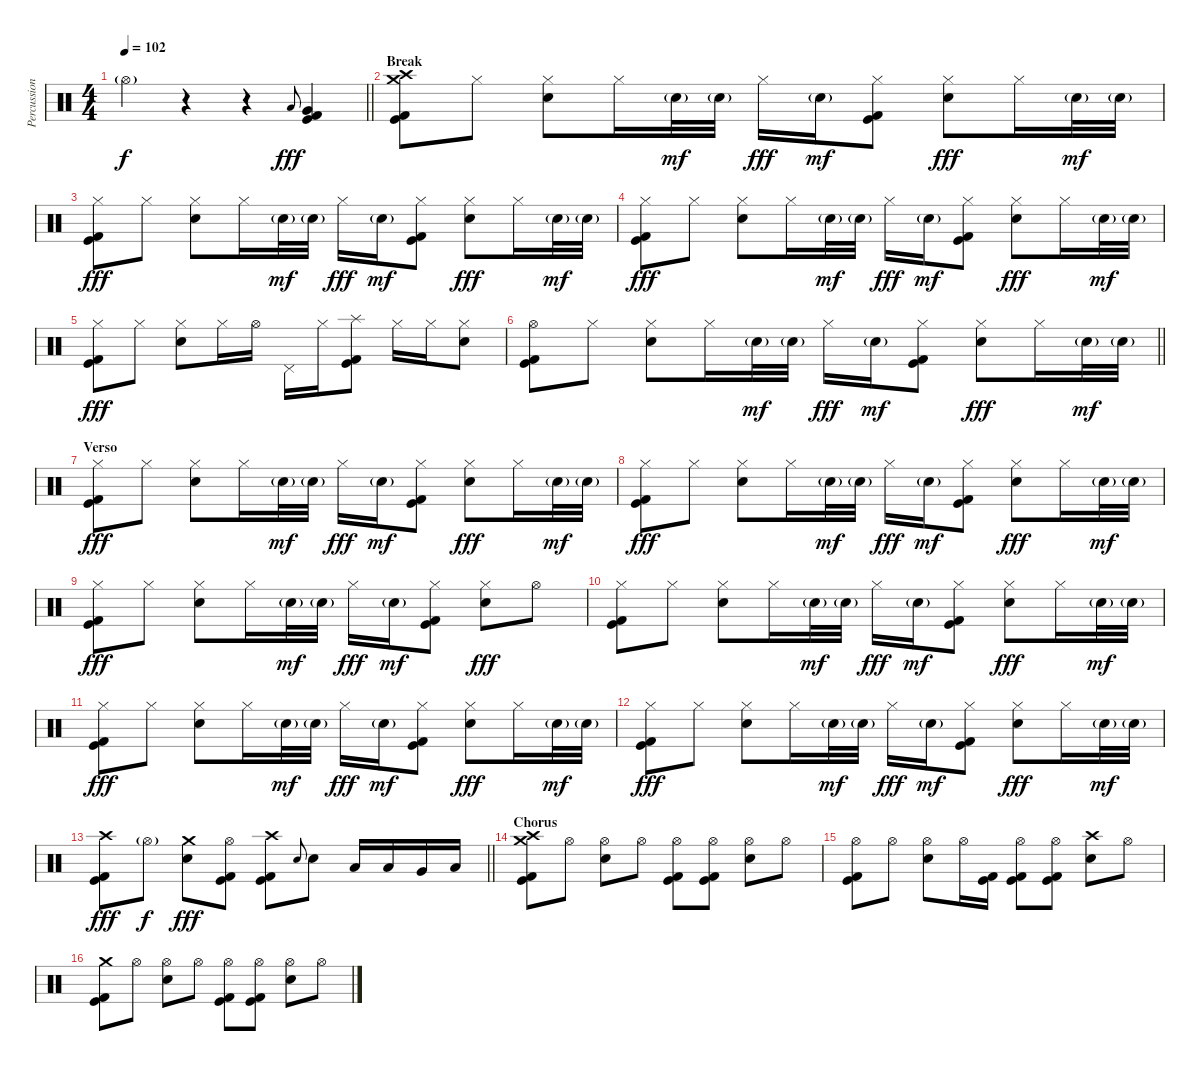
\track ("Percussion" "Percussion") {instrument percussion}
\staff {score}
\articulation defaults
\ts (4 4)
\tempo 102
\clef neutral
\barLineRight lightlight
\ks c "Hi-Hat (open)"{g}.4{dy f}
r.4 r.4 "Low Floor Tom (hit)".8{gr onbeat dy fff} ("Very Low Tom (hit)" "Kick (hit)" "Kick (hit) 2").4 |
\section ("" "Break")
("Crash medium (hit)" "Crash high (hit)" "Kick (hit)" "Kick (hit) 2").8 "Hi-Hat (closed)".8 ("Hi-Hat (closed)" "Electric Snare (hit)").8 "Hi-Hat (closed)".16 "Electric Snare (hit)"{g}.32{dy mf} "Electric Snare (hit)"{g}.32 "Hi-Hat (closed)".16{dy fff} "Electric Snare (hit)"{g}.16{dy mf} ("Hi-Hat (closed)" "Kick (hit)" "Kick (hit) 2").8 ("Hi-Hat (closed)" "Electric Snare (hit)").8{dy fff} "Hi-Hat (closed)".16 "Electric Snare (hit)"{g}.32{dy mf} "Electric Snare (hit)"{g}.32 |
("Hi-Hat (closed)" "Kick (hit)" "Kick (hit) 2").8{dy fff} "Hi-Hat (closed)".8 ("Hi-Hat (closed)" "Electric Snare (hit)").8 "Hi-Hat (closed)".16 "Electric Snare (hit)"{g}.32{dy mf} "Electric Snare (hit)"{g}.32 "Hi-Hat (closed)".16{dy fff} "Electric Snare (hit)"{g}.16{dy mf} ("Hi-Hat (closed)" "Kick (hit)" "Kick (hit) 2").8 ("Hi-Hat (closed)" "Electric Snare (hit)").8{dy fff} "Hi-Hat (closed)".16 "Electric Snare (hit)"{g}.32{dy mf} "Electric Snare (hit)"{g}.32 |
("Hi-Hat (closed)" "Kick (hit)" "Kick (hit) 2").8{dy fff} "Hi-Hat (closed)".8 ("Hi-Hat (closed)" "Electric Snare (hit)").8 "Hi-Hat (closed)".16 "Electric Snare (hit)"{g}.32{dy mf} "Electric Snare (hit)"{g}.32 "Hi-Hat (closed)".16{dy fff} "Electric Snare (hit)"{g}.16{dy mf} ("Hi-Hat (closed)" "Kick (hit)" "Kick (hit) 2").8 ("Hi-Hat (closed)" "Electric Snare (hit)").8{dy fff} "Hi-Hat (closed)".16 "Electric Snare (hit)"{g}.32{dy mf} "Electric Snare (hit)"{g}.32 |
("Hi-Hat (closed)" "Kick (hit)" "Kick (hit) 2").8{dy fff} "Hi-Hat (closed)".8 ("Hi-Hat (closed)" "Electric Snare (hit)").8 "Hi-Hat (closed)".16 "Hi-Hat (open)".16 "Pedal Hi-Hat (hit)".16 "Hi-Hat (closed)".16 ("Splash (hit)" "Kick (hit)" "Kick (hit) 2").8 "Hi-Hat (closed)".16 "Hi-Hat (closed)".16 ("Hi-Hat (closed)" "Electric Snare (hit)").8 |
\barLineRight lightlight
("Hi-Hat (open)" "Kick (hit)" "Kick (hit) 2").8 "Hi-Hat (closed)".8 ("Hi-Hat (closed)" "Electric Snare (hit)").8 "Hi-Hat (closed)".16 "Electric Snare (hit)"{g}.32{dy mf} "Electric Snare (hit)"{g}.32 "Hi-Hat (closed)".16{dy fff} "Electric Snare (hit)"{g}.16{dy mf} ("Hi-Hat (closed)" "Kick (hit)" "Kick (hit) 2").8 ("Hi-Hat (closed)" "Electric Snare (hit)").8{dy fff} "Hi-Hat (closed)".16 "Electric Snare (hit)"{g}.32{dy mf} "Electric Snare (hit)"{g}.32 |
\section ("" "Verso")
("Hi-Hat (closed)" "Kick (hit)" "Kick (hit) 2").8{dy fff} "Hi-Hat (closed)".8 ("Hi-Hat (closed)" "Electric Snare (hit)").8 "Hi-Hat (closed)".16 "Electric Snare (hit)"{g}.32{dy mf} "Electric Snare (hit)"{g}.32 "Hi-Hat (closed)".16{dy fff} "Electric Snare (hit)"{g}.16{dy mf} ("Hi-Hat (closed)" "Kick (hit)" "Kick (hit) 2").8 ("Hi-Hat (closed)" "Electric Snare (hit)").8{dy fff} "Hi-Hat (closed)".16 "Electric Snare (hit)"{g}.32{dy mf} "Electric Snare (hit)"{g}.32 |
("Hi-Hat (closed)" "Kick (hit)" "Kick (hit) 2").8{dy fff} "Hi-Hat (closed)".8 ("Hi-Hat (closed)" "Electric Snare (hit)").8 "Hi-Hat (closed)".16 "Electric Snare (hit)"{g}.32{dy mf} "Electric Snare (hit)"{g}.32 "Hi-Hat (closed)".16{dy fff} "Electric Snare (hit)"{g}.16{dy mf} ("Hi-Hat (closed)" "Kick (hit)" "Kick (hit) 2").8 ("Hi-Hat (closed)" "Electric Snare (hit)").8{dy fff} "Hi-Hat (closed)".16 "Electric Snare (hit)"{g}.32{dy mf} "Electric Snare (hit)"{g}.32 |
("Hi-Hat (closed)" "Kick (hit)" "Kick (hit) 2").8{dy fff} "Hi-Hat (closed)".8 ("Hi-Hat (closed)" "Electric Snare (hit)").8 "Hi-Hat (closed)".16 "Electric Snare (hit)"{g}.32{dy mf} "Electric Snare (hit)"{g}.32 "Hi-Hat (closed)".16{dy fff} "Electric Snare (hit)"{g}.16{dy mf} ("Hi-Hat (closed)" "Kick (hit)" "Kick (hit) 2").8 ("Hi-Hat (closed)" "Electric Snare (hit)").8{dy fff} "Hi-Hat (open)".8 |
("Hi-Hat (closed)" "Kick (hit)" "Kick (hit) 2").8 "Hi-Hat (closed)".8 ("Hi-Hat (closed)" "Electric Snare (hit)").8 "Hi-Hat (closed)".16 "Electric Snare (hit)"{g}.32{dy mf} "Electric Snare (hit)"{g}.32 "Hi-Hat (closed)".16{dy fff} "Electric Snare (hit)"{g}.16{dy mf} ("Hi-Hat (closed)" "Kick (hit)" "Kick (hit) 2").8 ("Hi-Hat (closed)" "Electric Snare (hit)").8{dy fff} "Hi-Hat (closed)".16 "Electric Snare (hit)"{g}.32{dy mf} "Electric Snare (hit)"{g}.32 |
("Hi-Hat (closed)" "Kick (hit)" "Kick (hit) 2").8{dy fff} "Hi-Hat (closed)".8 ("Hi-Hat (closed)" "Electric Snare (hit)").8 "Hi-Hat (closed)".16 "Electric Snare (hit)"{g}.32{dy mf} "Electric Snare (hit)"{g}.32 "Hi-Hat (closed)".16{dy fff} "Electric Snare (hit)"{g}.16{dy mf} ("Hi-Hat (closed)" "Kick (hit)" "Kick (hit) 2").8 ("Hi-Hat (closed)" "Electric Snare (hit)").8{dy fff} "Hi-Hat (closed)".16 "Electric Snare (hit)"{g}.32{dy mf} "Electric Snare (hit)"{g}.32 |
("Hi-Hat (closed)" "Kick (hit)" "Kick (hit) 2").8{dy fff} "Hi-Hat (closed)".8 ("Hi-Hat (closed)" "Electric Snare (hit)").8 "Hi-Hat (closed)".16 "Electric Snare (hit)"{g}.32{dy mf} "Electric Snare (hit)"{g}.32 "Hi-Hat (closed)".16{dy fff} "Electric Snare (hit)"{g}.16{dy mf} ("Hi-Hat (closed)" "Kick (hit)" "Kick (hit) 2").8 ("Hi-Hat (closed)" "Electric Snare (hit)").8{dy fff} "Hi-Hat (closed)".16 "Electric Snare (hit)"{g}.32{dy mf} "Electric Snare (hit)"{g}.32 |
\barLineRight lightlight
("Crash high (hit)" "Kick (hit)" "Kick (hit) 2").8{dy fff} "Hi-Hat (open)"{g}.8{dy f} ("Crash medium (hit)" "Electric Snare (hit)").8{dy fff} ("Hi-Hat (open)" "Kick (hit)" "Kick (hit) 2").8 ("Crash high (hit)" "Kick (hit)" "Kick (hit) 2").8 "Electric Snare (hit)".8{gr onbeat} "Electric Snare (hit)".8 "Low Tom (hit)".16 "Low Tom (hit)".16 "Very Low Tom (hit)".16 "Low Floor Tom (hit)".16 |
\section ("" "Chorus")
("Crash medium (hit)" "Crash high (hit)" "Kick (hit)" "Kick (hit) 2").8 "Hi-Hat (open)".8 ("Hi-Hat (open)" "Electric Snare (hit)").8 "Hi-Hat (open)".8 ("Hi-Hat (open)" "Kick (hit)" "Kick (hit) 2").8 ("Hi-Hat (open)" "Kick (hit)" "Kick (hit) 2").8 ("Hi-Hat (open)" "Electric Snare (hit)").8 "Hi-Hat (open)".8 |
("Hi-Hat (open)" "Kick (hit)" "Kick (hit) 2").8 "Hi-Hat (open)".8 ("Hi-Hat (open)" "Electric Snare (hit)").8 "Hi-Hat (open)".16 ("Kick (hit)" "Kick (hit) 2").16 ("Hi-Hat (open)" "Kick (hit)" "Kick (hit) 2").8 ("Hi-Hat (open)" "Kick (hit)" "Kick (hit) 2").8 ("Crash high (hit)" "Electric Snare (hit)").8 "Hi-Hat (open)".8 |
("Crash medium (hit)" "Kick (hit)" "Kick (hit) 2").8 "Hi-Hat (open)".8 ("Hi-Hat (open)" "Electric Snare (hit)").8 "Hi-Hat (open)".8 ("Hi-Hat (open)" "Kick (hit)" "Kick (hit) 2").8 ("Hi-Hat (open)" "Kick (hit)" "Kick (hit) 2").8 ("Hi-Hat (open)" "Electric Snare (hit)").8 "Hi-Hat (open)".8
